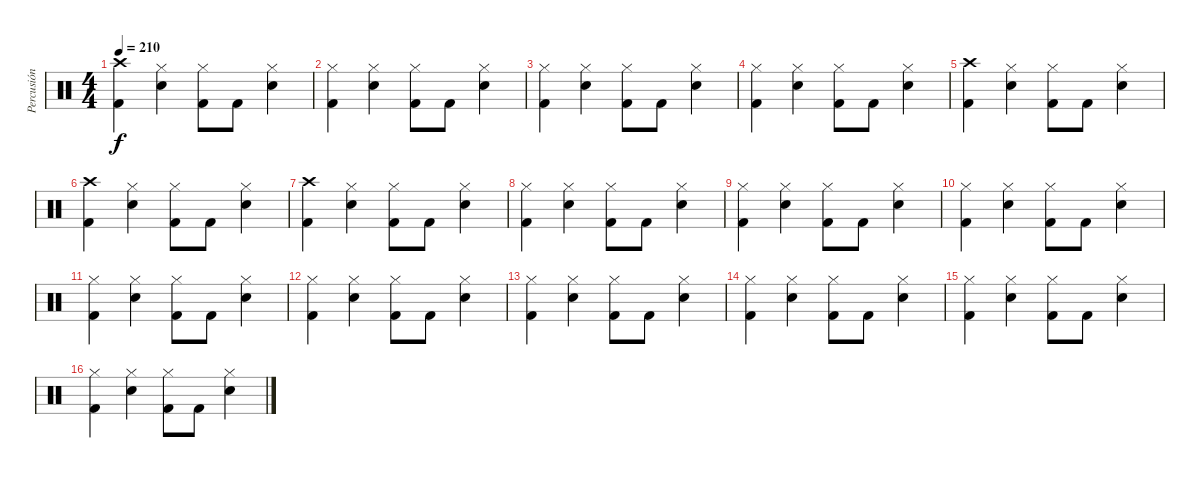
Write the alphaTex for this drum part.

\track ("Percusión" "Percusión") {instrument percussion}
\staff {score}
\articulation defaults
\ts (4 4)
\tempo 210
\clef neutral
\ks c
("Crash high (hit)" "Kick (hit) 2").4{dy f} ("Hi-Hat (closed)" "Electric Snare (hit)").4 ("Hi-Hat (closed)" "Kick (hit) 2").8 "Kick (hit) 2".8 ("Hi-Hat (closed)" "Electric Snare (hit)").4 |
("Hi-Hat (closed)" "Kick (hit) 2").4 ("Hi-Hat (closed)" "Electric Snare (hit)").4 ("Hi-Hat (closed)" "Kick (hit) 2").8 "Kick (hit) 2".8 ("Hi-Hat (closed)" "Electric Snare (hit)").4 |
("Hi-Hat (closed)" "Kick (hit) 2").4 ("Hi-Hat (closed)" "Electric Snare (hit)").4 ("Hi-Hat (closed)" "Kick (hit) 2").8 "Kick (hit) 2".8 ("Hi-Hat (closed)" "Electric Snare (hit)").4 |
("Hi-Hat (closed)" "Kick (hit) 2").4 ("Hi-Hat (closed)" "Electric Snare (hit)").4 ("Hi-Hat (closed)" "Kick (hit) 2").8 "Kick (hit) 2".8 ("Hi-Hat (closed)" "Electric Snare (hit)").4 |
("Crash high (hit)" "Kick (hit) 2").4 ("Hi-Hat (closed)" "Electric Snare (hit)").4 ("Hi-Hat (closed)" "Kick (hit) 2").8 "Kick (hit) 2".8 ("Hi-Hat (closed)" "Electric Snare (hit)").4 |
("Crash high (hit)" "Kick (hit) 2").4 ("Hi-Hat (closed)" "Electric Snare (hit)").4 ("Hi-Hat (closed)" "Kick (hit) 2").8 "Kick (hit) 2".8 ("Hi-Hat (closed)" "Electric Snare (hit)").4 |
("Crash high (hit)" "Kick (hit) 2").4 ("Hi-Hat (closed)" "Electric Snare (hit)").4 ("Hi-Hat (closed)" "Kick (hit) 2").8 "Kick (hit) 2".8 ("Hi-Hat (closed)" "Electric Snare (hit)").4 |
("Hi-Hat (closed)" "Kick (hit) 2").4 ("Hi-Hat (closed)" "Electric Snare (hit)").4 ("Hi-Hat (closed)" "Kick (hit) 2").8 "Kick (hit) 2".8 ("Hi-Hat (closed)" "Electric Snare (hit)").4 |
("Hi-Hat (closed)" "Kick (hit) 2").4 ("Hi-Hat (closed)" "Electric Snare (hit)").4 ("Hi-Hat (closed)" "Kick (hit) 2").8 "Kick (hit) 2".8 ("Hi-Hat (closed)" "Electric Snare (hit)").4 |
("Hi-Hat (closed)" "Kick (hit) 2").4 ("Hi-Hat (closed)" "Electric Snare (hit)").4 ("Hi-Hat (closed)" "Kick (hit) 2").8 "Kick (hit) 2".8 ("Hi-Hat (closed)" "Electric Snare (hit)").4 |
("Hi-Hat (closed)" "Kick (hit) 2").4 ("Hi-Hat (closed)" "Electric Snare (hit)").4 ("Hi-Hat (closed)" "Kick (hit) 2").8 "Kick (hit) 2".8 ("Hi-Hat (closed)" "Electric Snare (hit)").4 |
("Hi-Hat (closed)" "Kick (hit) 2").4 ("Hi-Hat (closed)" "Electric Snare (hit)").4 ("Hi-Hat (closed)" "Kick (hit) 2").8 "Kick (hit) 2".8 ("Hi-Hat (closed)" "Electric Snare (hit)").4 |
("Hi-Hat (closed)" "Kick (hit) 2").4 ("Hi-Hat (closed)" "Electric Snare (hit)").4 ("Hi-Hat (closed)" "Kick (hit) 2").8 "Kick (hit) 2".8 ("Hi-Hat (closed)" "Electric Snare (hit)").4 |
("Hi-Hat (closed)" "Kick (hit) 2").4 ("Hi-Hat (closed)" "Electric Snare (hit)").4 ("Hi-Hat (closed)" "Kick (hit) 2").8 "Kick (hit) 2".8 ("Hi-Hat (closed)" "Electric Snare (hit)").4 |
("Hi-Hat (closed)" "Kick (hit) 2").4 ("Hi-Hat (closed)" "Electric Snare (hit)").4 ("Hi-Hat (closed)" "Kick (hit) 2").8 "Kick (hit) 2".8 ("Hi-Hat (closed)" "Electric Snare (hit)").4 |
("Hi-Hat (closed)" "Kick (hit) 2").4 ("Hi-Hat (closed)" "Electric Snare (hit)").4 ("Hi-Hat (closed)" "Kick (hit) 2").8 "Kick (hit) 2".8 ("Hi-Hat (closed)" "Electric Snare (hit)").4
